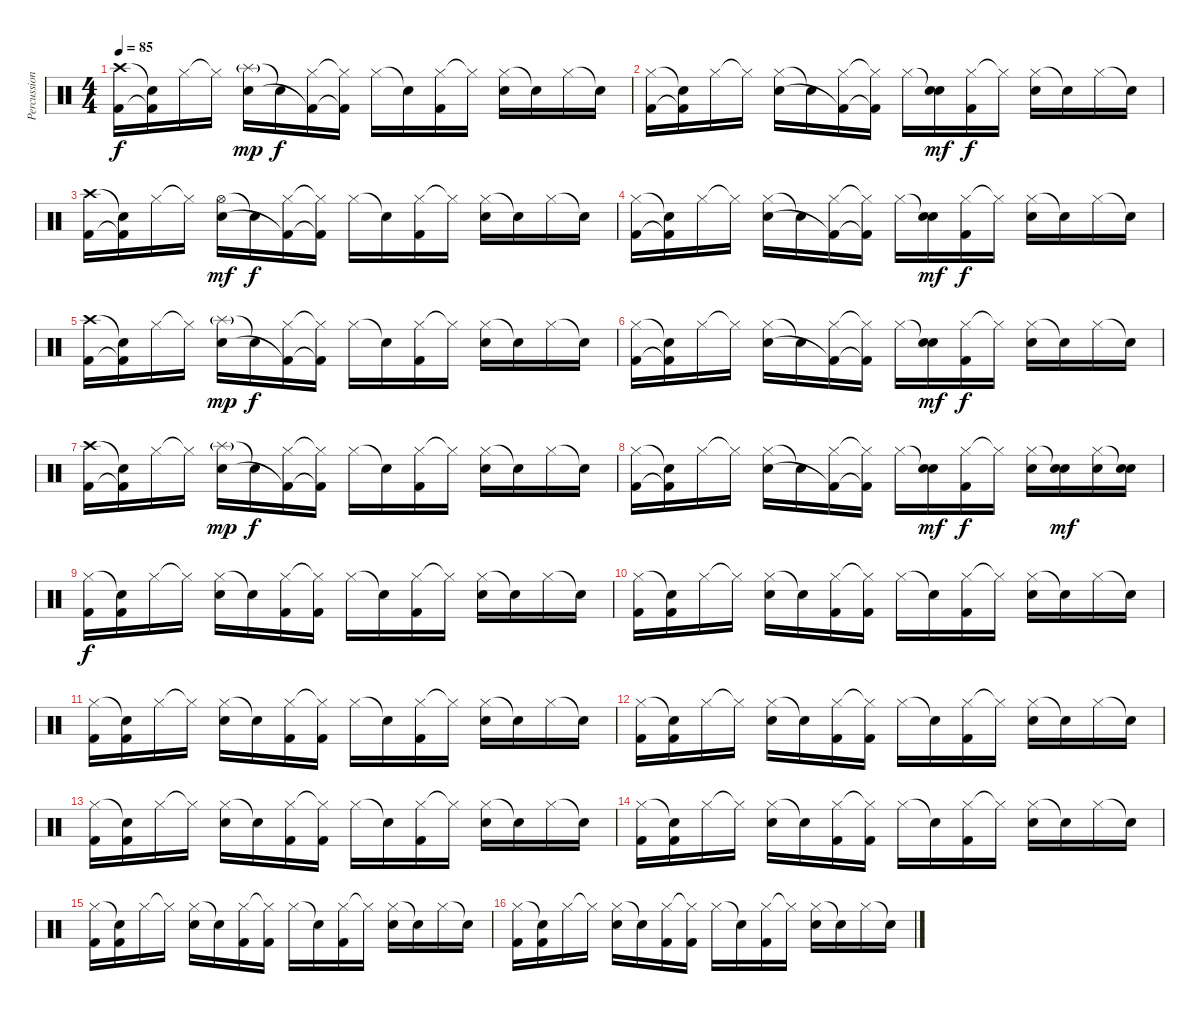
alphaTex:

\track ("Percussion" "Percussion") {instrument percussion}
\staff {score}
\articulation defaults
\ts (4 4)
\tempo 85
\clef neutral
\ks c
("Crash high (hit)" "Kick (hit) 2").16{dy f} ("Snare (hit)"{t} "Kick (hit) 2"{t}).16 "Hi-Hat (closed)".16 "Hi-Hat (closed)"{t}.16 ("Splash (hit)"{g} "Snare (hit) 2").16{dy mp} "Snare (hit)"{t}.16{dy f} ("Hi-Hat (closed)" "Kick (hit) 2"{t}).16 ("Hi-Hat (closed)"{t} "Kick (hit) 2"{t}).16 "Hi-Hat (closed)".16 "Snare (hit)"{t}.16 ("Hi-Hat (closed)" "Kick (hit) 2").16 "Hi-Hat (closed)"{t}.16 ("Hi-Hat (closed)" "Snare (hit) 2").16 "Snare (hit)"{t}.16 "Hi-Hat (closed)".16 "Snare (hit)"{t}.16 |
("Hi-Hat (closed)" "Kick (hit) 2").16 ("Snare (hit)"{t} "Kick (hit) 2"{t}).16 "Hi-Hat (closed)".16 "Hi-Hat (closed)"{t}.16 ("Hi-Hat (closed)" "Snare (hit) 2").16 "Snare (hit)"{t}.16 ("Hi-Hat (closed)" "Kick (hit) 2"{t}).16 ("Hi-Hat (closed)"{t} "Kick (hit) 2"{t}).16 "Hi-Hat (closed)".16 ("Snare (hit)"{t} "Snare (hit) 2").16{dy mf} ("Hi-Hat (closed)" "Kick (hit) 2").16{dy f} "Hi-Hat (closed)"{t}.16 ("Hi-Hat (closed)" "Snare (hit) 2").16 "Snare (hit)"{t}.16 "Hi-Hat (closed)".16 "Snare (hit)"{t}.16 |
("Crash high (hit)" "Kick (hit) 2").16 ("Snare (hit)"{t} "Kick (hit) 2"{t}).16 "Hi-Hat (closed)".16 "Hi-Hat (closed)"{t}.16 ("Hi-Hat (open)" "Snare (hit) 2").16{dy mf} "Snare (hit)"{t}.16{dy f} ("Hi-Hat (closed)" "Kick (hit) 2"{t}).16 ("Hi-Hat (closed)"{t} "Kick (hit) 2"{t}).16 "Hi-Hat (closed)".16 "Snare (hit)"{t}.16 ("Hi-Hat (closed)" "Kick (hit) 2").16 "Hi-Hat (closed)"{t}.16 ("Hi-Hat (closed)" "Snare (hit) 2").16 "Snare (hit)"{t}.16 "Hi-Hat (closed)".16 "Snare (hit)"{t}.16 |
("Hi-Hat (closed)" "Kick (hit) 2").16 ("Snare (hit)"{t} "Kick (hit) 2"{t}).16 "Hi-Hat (closed)".16 "Hi-Hat (closed)"{t}.16 ("Hi-Hat (closed)" "Snare (hit) 2").16 "Snare (hit)"{t}.16 ("Hi-Hat (closed)" "Kick (hit) 2"{t}).16 ("Hi-Hat (closed)"{t} "Kick (hit) 2"{t}).16 "Hi-Hat (closed)".16 ("Snare (hit)"{t} "Snare (hit) 2").16{dy mf} ("Hi-Hat (closed)" "Kick (hit) 2").16{dy f} "Hi-Hat (closed)"{t}.16 ("Hi-Hat (closed)" "Snare (hit) 2").16 "Snare (hit)"{t}.16 "Hi-Hat (closed)".16 "Snare (hit)"{t}.16 |
("Crash high (hit)" "Kick (hit) 2").16 ("Snare (hit)"{t} "Kick (hit) 2"{t}).16 "Hi-Hat (closed)".16 "Hi-Hat (closed)"{t}.16 ("Splash (hit)"{g} "Snare (hit) 2").16{dy mp} "Snare (hit)"{t}.16{dy f} ("Hi-Hat (closed)" "Kick (hit) 2"{t}).16 ("Hi-Hat (closed)"{t} "Kick (hit) 2"{t}).16 "Hi-Hat (closed)".16 "Snare (hit)"{t}.16 ("Hi-Hat (closed)" "Kick (hit) 2").16 "Hi-Hat (closed)"{t}.16 ("Hi-Hat (closed)" "Snare (hit) 2").16 "Snare (hit)"{t}.16 "Hi-Hat (closed)".16 "Snare (hit)"{t}.16 |
("Hi-Hat (closed)" "Kick (hit) 2").16 ("Snare (hit)"{t} "Kick (hit) 2"{t}).16 "Hi-Hat (closed)".16 "Hi-Hat (closed)"{t}.16 ("Hi-Hat (closed)" "Snare (hit) 2").16 "Snare (hit)"{t}.16 ("Hi-Hat (closed)" "Kick (hit) 2"{t}).16 ("Hi-Hat (closed)"{t} "Kick (hit) 2"{t}).16 "Hi-Hat (closed)".16 ("Snare (hit)"{t} "Snare (hit) 2").16{dy mf} ("Hi-Hat (closed)" "Kick (hit) 2").16{dy f} "Hi-Hat (closed)"{t}.16 ("Hi-Hat (closed)" "Snare (hit) 2").16 "Snare (hit)"{t}.16 "Hi-Hat (closed)".16 "Snare (hit)"{t}.16 |
("Crash high (hit)" "Kick (hit) 2").16 ("Snare (hit)"{t} "Kick (hit) 2"{t}).16 "Hi-Hat (closed)".16 "Hi-Hat (closed)"{t}.16 ("Splash (hit)"{g} "Snare (hit) 2").16{dy mp} "Snare (hit)"{t}.16{dy f} ("Hi-Hat (closed)" "Kick (hit) 2"{t}).16 ("Hi-Hat (closed)"{t} "Kick (hit) 2"{t}).16 "Hi-Hat (closed)".16 "Snare (hit)"{t}.16 ("Hi-Hat (closed)" "Kick (hit) 2").16 "Hi-Hat (closed)"{t}.16 ("Hi-Hat (closed)" "Snare (hit) 2").16 "Snare (hit)"{t}.16 "Hi-Hat (closed)".16 "Snare (hit)"{t}.16 |
("Hi-Hat (closed)" "Kick (hit) 2").16 ("Snare (hit)"{t} "Kick (hit) 2"{t}).16 "Hi-Hat (closed)".16 "Hi-Hat (closed)"{t}.16 ("Hi-Hat (closed)" "Snare (hit) 2").16 "Snare (hit)"{t}.16 ("Hi-Hat (closed)" "Kick (hit) 2"{t}).16 ("Hi-Hat (closed)"{t} "Kick (hit) 2"{t}).16 "Hi-Hat (closed)".16 ("Snare (hit)"{t} "Snare (hit) 2").16{dy mf} ("Hi-Hat (closed)" "Kick (hit) 2").16{dy f} "Hi-Hat (closed)"{t}.16 ("Hi-Hat (closed)" "Snare (hit) 2").16 ("Snare (hit)"{t} "Snare (hit) 2").16{dy mf} ("Hi-Hat (closed)" "Snare (hit) 2").16 ("Snare (hit)"{t} "Snare (hit) 2").16 |
("Hi-Hat (closed)" "Kick (hit) 2").16{dy f} ("Snare (hit)"{t} "Kick (hit) 2").16 "Hi-Hat (closed)".16 "Hi-Hat (closed)"{t}.16 ("Hi-Hat (closed)" "Snare (hit) 2").16 "Snare (hit)"{t}.16 ("Hi-Hat (closed)" "Kick (hit) 2").16 ("Hi-Hat (closed)"{t} "Kick (hit) 2").16 "Hi-Hat (closed)".16 "Snare (hit)"{t}.16 ("Hi-Hat (closed)" "Kick (hit) 2").16 "Hi-Hat (closed)"{t}.16 ("Hi-Hat (closed)" "Snare (hit) 2").16 "Snare (hit)"{t}.16 "Hi-Hat (closed)".16 "Snare (hit)"{t}.16 |
("Hi-Hat (closed)" "Kick (hit) 2").16 ("Snare (hit)"{t} "Kick (hit) 2").16 "Hi-Hat (closed)".16 "Hi-Hat (closed)"{t}.16 ("Hi-Hat (closed)" "Snare (hit) 2").16 "Snare (hit)"{t}.16 ("Hi-Hat (closed)" "Kick (hit) 2").16 ("Hi-Hat (closed)"{t} "Kick (hit) 2").16 "Hi-Hat (closed)".16 "Snare (hit)"{t}.16 ("Hi-Hat (closed)" "Kick (hit) 2").16 "Hi-Hat (closed)"{t}.16 ("Hi-Hat (closed)" "Snare (hit) 2").16 "Snare (hit)"{t}.16 "Hi-Hat (closed)".16 "Snare (hit)"{t}.16 |
("Hi-Hat (closed)" "Kick (hit) 2").16 ("Snare (hit)"{t} "Kick (hit) 2").16 "Hi-Hat (closed)".16 "Hi-Hat (closed)"{t}.16 ("Hi-Hat (closed)" "Snare (hit) 2").16 "Snare (hit)"{t}.16 ("Hi-Hat (closed)" "Kick (hit) 2").16 ("Hi-Hat (closed)"{t} "Kick (hit) 2").16 "Hi-Hat (closed)".16 "Snare (hit)"{t}.16 ("Hi-Hat (closed)" "Kick (hit) 2").16 "Hi-Hat (closed)"{t}.16 ("Hi-Hat (closed)" "Snare (hit) 2").16 "Snare (hit)"{t}.16 "Hi-Hat (closed)".16 "Snare (hit)"{t}.16 |
("Hi-Hat (closed)" "Kick (hit) 2").16 ("Snare (hit)"{t} "Kick (hit) 2").16 "Hi-Hat (closed)".16 "Hi-Hat (closed)"{t}.16 ("Hi-Hat (closed)" "Snare (hit) 2").16 "Snare (hit)"{t}.16 ("Hi-Hat (closed)" "Kick (hit) 2").16 ("Hi-Hat (closed)"{t} "Kick (hit) 2").16 "Hi-Hat (closed)".16 "Snare (hit)"{t}.16 ("Hi-Hat (closed)" "Kick (hit) 2").16 "Hi-Hat (closed)"{t}.16 ("Hi-Hat (closed)" "Snare (hit) 2").16 "Snare (hit)"{t}.16 "Hi-Hat (closed)".16 "Snare (hit)"{t}.16 |
("Hi-Hat (closed)" "Kick (hit) 2").16 ("Snare (hit)"{t} "Kick (hit) 2").16 "Hi-Hat (closed)".16 "Hi-Hat (closed)"{t}.16 ("Hi-Hat (closed)" "Snare (hit) 2").16 "Snare (hit)"{t}.16 ("Hi-Hat (closed)" "Kick (hit) 2").16 ("Hi-Hat (closed)"{t} "Kick (hit) 2").16 "Hi-Hat (closed)".16 "Snare (hit)"{t}.16 ("Hi-Hat (closed)" "Kick (hit) 2").16 "Hi-Hat (closed)"{t}.16 ("Hi-Hat (closed)" "Snare (hit) 2").16 "Snare (hit)"{t}.16 "Hi-Hat (closed)".16 "Snare (hit)"{t}.16 |
("Hi-Hat (closed)" "Kick (hit) 2").16 ("Snare (hit)"{t} "Kick (hit) 2").16 "Hi-Hat (closed)".16 "Hi-Hat (closed)"{t}.16 ("Hi-Hat (closed)" "Snare (hit) 2").16 "Snare (hit)"{t}.16 ("Hi-Hat (closed)" "Kick (hit) 2").16 ("Hi-Hat (closed)"{t} "Kick (hit) 2").16 "Hi-Hat (closed)".16 "Snare (hit)"{t}.16 ("Hi-Hat (closed)" "Kick (hit) 2").16 "Hi-Hat (closed)"{t}.16 ("Hi-Hat (closed)" "Snare (hit) 2").16 "Snare (hit)"{t}.16 "Hi-Hat (closed)".16 "Snare (hit)"{t}.16 |
("Hi-Hat (closed)" "Kick (hit) 2").16 ("Snare (hit)"{t} "Kick (hit) 2").16 "Hi-Hat (closed)".16 "Hi-Hat (closed)"{t}.16 ("Hi-Hat (closed)" "Snare (hit) 2").16 "Snare (hit)"{t}.16 ("Hi-Hat (closed)" "Kick (hit) 2").16 ("Hi-Hat (closed)"{t} "Kick (hit) 2").16 "Hi-Hat (closed)".16 "Snare (hit)"{t}.16 ("Hi-Hat (closed)" "Kick (hit) 2").16 "Hi-Hat (closed)"{t}.16 ("Hi-Hat (closed)" "Snare (hit) 2").16 "Snare (hit)"{t}.16 "Hi-Hat (closed)".16 "Snare (hit)"{t}.16 |
("Hi-Hat (closed)" "Kick (hit) 2").16 ("Snare (hit)"{t} "Kick (hit) 2").16 "Hi-Hat (closed)".16 "Hi-Hat (closed)"{t}.16 ("Hi-Hat (closed)" "Snare (hit) 2").16 "Snare (hit)"{t}.16 ("Hi-Hat (closed)" "Kick (hit) 2").16 ("Hi-Hat (closed)"{t} "Kick (hit) 2").16 "Hi-Hat (closed)".16 "Snare (hit)"{t}.16 ("Hi-Hat (closed)" "Kick (hit) 2").16 "Hi-Hat (closed)"{t}.16 ("Hi-Hat (closed)" "Snare (hit) 2").16 "Snare (hit)"{t}.16 "Hi-Hat (closed)".16 "Snare (hit)"{t}.16
